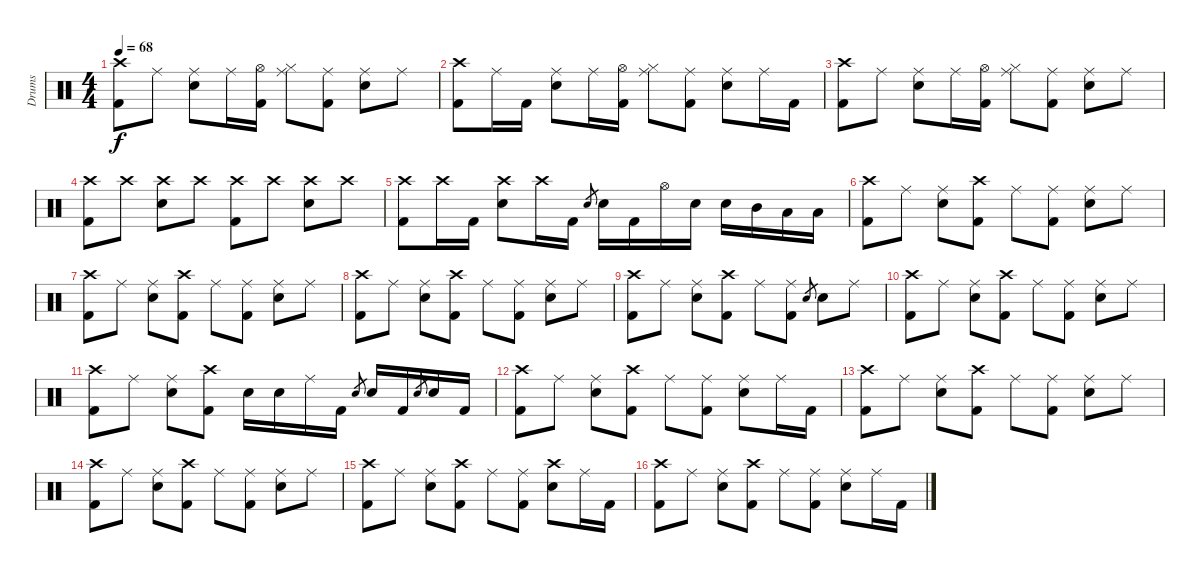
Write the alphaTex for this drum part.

\track ("Drums" "Drums") {instrument percussion}
\staff {score}
\articulation defaults
\ts (4 4)
\tempo 68
\clef neutral
\ks c
("Crash high (hit)" "Kick (hit) 2").8{dy f} "Ride (middle)".8 ("Ride (middle)" "Electric Snare (hit)").8 "Ride (middle)".16 ("Hi-Hat (open)" "Kick (hit) 2").16 ("Ride (middle)" "Hi-Hat (closed)").8 ("Ride (middle)" "Kick (hit) 2").8 ("Ride (middle)" "Electric Snare (hit)").8 "Ride (middle)".8 |
("Crash high (hit)" "Kick (hit) 2").8 "Ride (middle)".16 "Kick (hit) 2".16 ("Ride (middle)" "Electric Snare (hit)").8 "Ride (middle)".16 ("Hi-Hat (open)" "Kick (hit) 2").16 ("Ride (middle)" "Hi-Hat (closed)").8 ("Ride (middle)" "Kick (hit) 2").8 ("Ride (middle)" "Electric Snare (hit)").8 "Ride (middle)".16 "Kick (hit) 2".16 |
("Crash high (hit)" "Kick (hit) 2").8 "Ride (middle)".8 ("Ride (middle)" "Electric Snare (hit)").8 "Ride (middle)".16 ("Hi-Hat (open)" "Kick (hit) 2").16 ("Ride (middle)" "Hi-Hat (closed)").8 ("Ride (middle)" "Kick (hit) 2").8 ("Ride (middle)" "Electric Snare (hit)").8 "Ride (middle)".8 |
("Crash high (hit)" "Kick (hit) 2").8 "Crash high (hit)".8 ("Crash high (hit)" "Electric Snare (hit)").8 "Crash high (hit)".8 ("Crash high (hit)" "Kick (hit) 2").8 "Crash high (hit)".8 ("Crash high (hit)" "Electric Snare (hit)").8 "Crash high (hit)".8 |
("Crash high (hit)" "Kick (hit) 2").8 "Crash high (hit)".16 "Kick (hit) 2".16 ("Crash high (hit)" "Electric Snare (hit)").8 "Crash high (hit)".16 "Kick (hit) 2".16 "Electric Snare (hit)".8{gr} "Electric Snare (hit)".16 "Kick (hit) 2".16 "Hi-Hat (open)".16 "Electric Snare (hit)".16 "Electric Snare (hit)".16 "Mid Tom (hit)".16 "Low Tom (hit)".16 "Low Floor Tom (hit)".16 |
("Crash high (hit)" "Kick (hit) 2").8 "Ride (middle)".8 ("Ride (middle)" "Electric Snare (hit)").8 ("Crash high (hit)" "Kick (hit) 2").8 "Ride (middle)".8 ("Ride (middle)" "Kick (hit) 2").8 ("Ride (middle)" "Electric Snare (hit)").8 "Ride (middle)".8 |
("Crash high (hit)" "Kick (hit) 2").8 "Ride (middle)".8 ("Ride (middle)" "Electric Snare (hit)").8 ("Crash high (hit)" "Kick (hit) 2").8 "Ride (middle)".8 ("Ride (middle)" "Kick (hit) 2").8 ("Ride (middle)" "Electric Snare (hit)").8 "Ride (middle)".8 |
("Crash high (hit)" "Kick (hit) 2").8 "Ride (middle)".8 ("Ride (middle)" "Electric Snare (hit)").8 ("Crash high (hit)" "Kick (hit) 2").8 "Ride (middle)".8 ("Ride (middle)" "Kick (hit) 2").8 ("Ride (middle)" "Electric Snare (hit)").8 "Ride (middle)".8 |
("Crash high (hit)" "Kick (hit) 2").8 "Ride (middle)".8 ("Ride (middle)" "Electric Snare (hit)").8 ("Crash high (hit)" "Kick (hit) 2").8 "Ride (middle)".8 ("Ride (middle)" "Kick (hit) 2").8 "Electric Snare (hit)".8{gr} "Electric Snare (hit)".8 "Ride (middle)".8 |
("Crash high (hit)" "Kick (hit) 2").8 "Ride (middle)".8 ("Ride (middle)" "Electric Snare (hit)").8 ("Crash high (hit)" "Kick (hit) 2").8 "Ride (middle)".8 ("Ride (middle)" "Kick (hit) 2").8 ("Ride (middle)" "Electric Snare (hit)").8 "Ride (middle)".8 |
("Crash high (hit)" "Kick (hit) 2").8 "Ride (middle)".8 ("Ride (middle)" "Electric Snare (hit)").8 ("Crash high (hit)" "Kick (hit) 2").8 "Electric Snare (hit)".16 "Electric Snare (hit)".16 "Ride (middle)".16 "Kick (hit) 2".16 "Electric Snare (hit)".8{gr} "Electric Snare (hit)".16 "Kick (hit) 2".16 "Electric Snare (hit)".8{gr} "Electric Snare (hit)".16 "Kick (hit) 2".16 |
("Crash high (hit)" "Kick (hit) 2").8 "Ride (middle)".8 ("Ride (middle)" "Electric Snare (hit)").8 ("Crash high (hit)" "Kick (hit) 2").8 "Ride (middle)".8 ("Ride (middle)" "Kick (hit) 2").8 ("Ride (middle)" "Electric Snare (hit)").8 "Ride (middle)".16 "Kick (hit) 2".16 |
("Crash high (hit)" "Kick (hit) 2").8 "Ride (middle)".8 ("Ride (middle)" "Electric Snare (hit)").8 ("Crash high (hit)" "Kick (hit) 2").8 "Ride (middle)".8 ("Ride (middle)" "Kick (hit) 2").8 ("Ride (middle)" "Electric Snare (hit)").8 "Ride (middle)".8 |
("Crash high (hit)" "Kick (hit) 2").8 "Ride (middle)".8 ("Ride (middle)" "Electric Snare (hit)").8 ("Crash high (hit)" "Kick (hit) 2").8 "Ride (middle)".8 ("Ride (middle)" "Kick (hit) 2").8 ("Ride (middle)" "Electric Snare (hit)").8 "Ride (middle)".8 |
("Crash high (hit)" "Kick (hit) 2").8 "Ride (middle)".8 ("Ride (middle)" "Electric Snare (hit)").8 ("Crash high (hit)" "Kick (hit) 2").8 "Ride (middle)".8 ("Ride (middle)" "Kick (hit) 2").8 ("Crash high (hit)" "Electric Snare (hit)").8 "Ride (middle)".16 "Kick (hit) 2".16 |
("Crash high (hit)" "Kick (hit) 2").8 "Ride (middle)".8 ("Ride (middle)" "Electric Snare (hit)").8 ("Crash high (hit)" "Kick (hit) 2").8 "Ride (middle)".8 ("Ride (middle)" "Kick (hit) 2").8 ("Ride (middle)" "Electric Snare (hit)").8 "Ride (middle)".16 "Kick (hit) 2".16
